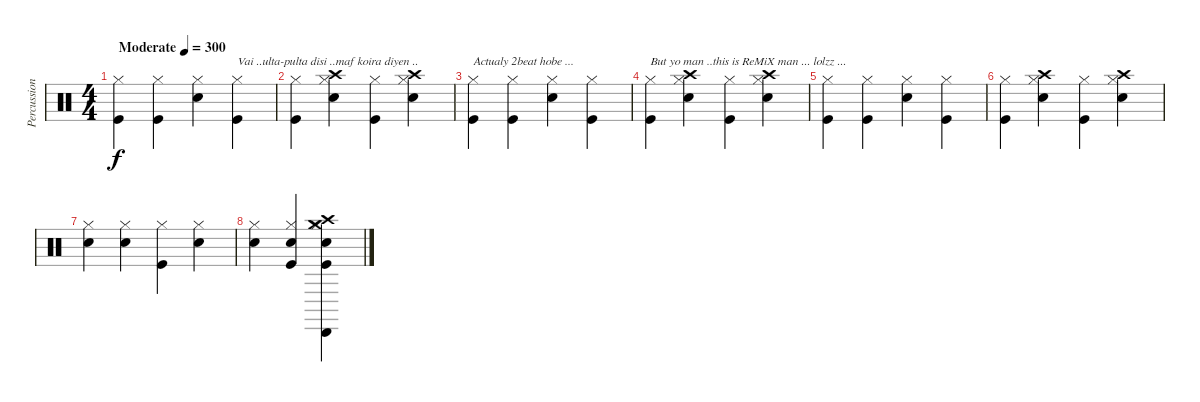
\track ("Percussion" "Percussion") {instrument percussion}
\staff {score}
\articulation defaults
\ts (4 4)
\tempo (300 "Moderate")
\clef neutral
\ks c
("Kick (hit)" "Hi-Hat (closed)").4{dy f} ("Kick (hit)" "Hi-Hat (closed)").4 ("Snare (hit) 2" "Hi-Hat (closed)").4 ("Kick (hit)" "Hi-Hat (closed)").4{txt "Vai ..ulta-pulta disi ..maf koira diyen .."} |
("Kick (hit)" "Hi-Hat (closed)").4 ("Snare (hit) 2" "Hi-Hat (closed)" "Crash high (hit)").4 ("Kick (hit)" "Hi-Hat (closed)").4 ("Snare (hit) 2" "Hi-Hat (closed)" "Crash high (hit)").4 |
("Kick (hit)" "Hi-Hat (closed)").4{txt "Actualy 2beat hobe ..."} ("Kick (hit)" "Hi-Hat (closed)").4 ("Snare (hit) 2" "Hi-Hat (closed)").4 ("Kick (hit)" "Hi-Hat (closed)").4 |
("Kick (hit)" "Hi-Hat (closed)").4{txt "But yo man ..this is ReMiX man ... lolzz ..."} ("Snare (hit) 2" "Hi-Hat (closed)" "Crash high (hit)").4 ("Kick (hit)" "Hi-Hat (closed)").4 ("Snare (hit) 2" "Hi-Hat (closed)" "Crash high (hit)").4 |
("Kick (hit)" "Hi-Hat (closed)").4 ("Kick (hit)" "Hi-Hat (closed)").4 ("Snare (hit) 2" "Hi-Hat (closed)").4 ("Kick (hit)" "Hi-Hat (closed)").4 |
("Kick (hit)" "Hi-Hat (closed)").4 ("Snare (hit) 2" "Hi-Hat (closed)" "Crash high (hit)").4 ("Kick (hit)" "Hi-Hat (closed)").4 ("Snare (hit) 2" "Hi-Hat (closed)" "Crash high (hit)").4 |
("Snare (hit) 2" "Hi-Hat (closed)").4 ("Snare (hit) 2" "Hi-Hat (closed)").4 ("Kick (hit)" "Hi-Hat (closed)").4 ("Snare (hit) 2" "Hi-Hat (closed)").4 |
("Snare (hit) 2" "Hi-Hat (closed)").4 ("Kick (hit)" "Snare (hit) 2" "Hi-Hat (closed)").4 ("Kick (hit)" "Snare (hit) 2" "Hi-Hat (closed)" "Crash high (hit)" "Cabasa (hit)" "Crash medium (hit)").4
